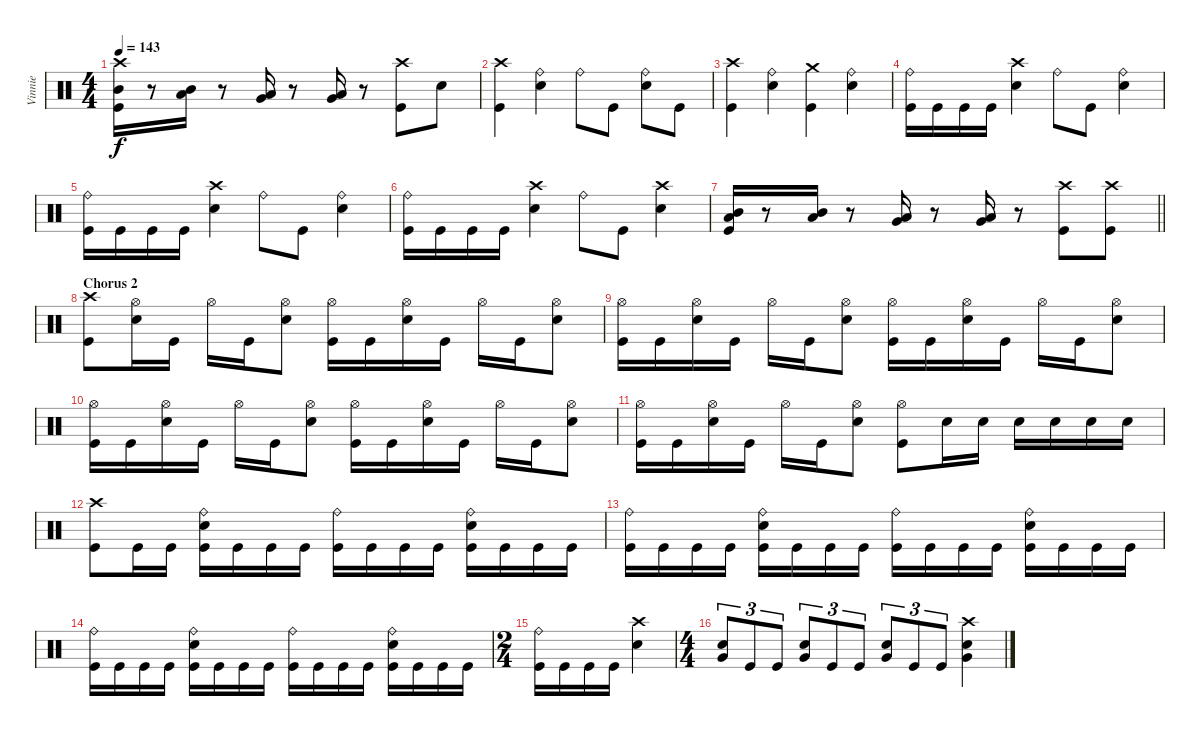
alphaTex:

\track ("Vinnie" "Vinnie") {instrument percussion}
\staff {score}
\articulation defaults
\ts (4 4)
\tempo 143
\clef neutral
\ks c
("Crash high (hit)" "Mid Tom (hit)" "Kick (hit)").16{dy f} r.8 ("Mid Tom (hit)" "Low Tom (hit)").16 r.8 ("Low Tom (hit)" "Very Low Tom (hit)").16 r.8 ("Low Tom (hit)" "Very Low Tom (hit)").16 r.8 ("Crash high (hit)" "Kick (hit)").8 "Electric Snare (hit)".8 |
("Crash high (hit)" "Kick (hit)").4 ("Ride (bell)" "Electric Snare (hit)").4 "Ride (bell)".8 "Kick (hit)".8 ("Ride (bell)" "Electric Snare (hit)").8 "Kick (hit)".8 |
("Crash high (hit)" "Kick (hit)").4 ("Ride (bell)" "Electric Snare (hit)").4 ("Crash medium (hit)" "Kick (hit)").4 ("Ride (bell)" "Electric Snare (hit)").4 |
("Ride (bell)" "Kick (hit)").16 "Kick (hit)".16 "Kick (hit)".16 "Kick (hit)".16 ("Crash high (hit)" "Electric Snare (hit)").4 "Ride (bell)".8 "Kick (hit)".8 ("Ride (bell)" "Electric Snare (hit)").4 |
("Ride (bell)" "Kick (hit)").16 "Kick (hit)".16 "Kick (hit)".16 "Kick (hit)".16 ("Crash high (hit)" "Electric Snare (hit)").4 "Ride (bell)".8 "Kick (hit)".8 ("Ride (bell)" "Electric Snare (hit)").4 |
("Ride (bell)" "Kick (hit)").16 "Kick (hit)".16 "Kick (hit)".16 "Kick (hit)".16 ("Crash high (hit)" "Electric Snare (hit)").4 "Ride (bell)".8 "Kick (hit)".8 ("Crash high (hit)" "Electric Snare (hit)").4 |
\barLineRight lightlight
("Mid Tom (hit)" "Low Tom (hit)" "Kick (hit)").16 r.8 ("Mid Tom (hit)" "Low Tom (hit)").16 r.8 ("Low Tom (hit)" "Very Low Tom (hit)").16 r.8 ("Low Tom (hit)" "Very Low Tom (hit)").16 r.8 ("Crash high (hit)" "Kick (hit)").8 ("Crash high (hit)" "Kick (hit)").8 |
\section ("" "Chorus 2")
("Crash high (hit)" "Kick (hit)").8 ("Hi-Hat (open)" "Electric Snare (hit)").16 "Kick (hit)".16 "Hi-Hat (open)".16 "Kick (hit)".16 ("Hi-Hat (open)" "Electric Snare (hit)").8 ("Hi-Hat (open)" "Kick (hit)").16 "Kick (hit)".16 ("Hi-Hat (open)" "Electric Snare (hit)").16 "Kick (hit)".16 "Hi-Hat (open)".16 "Kick (hit)".16 ("Hi-Hat (open)" "Electric Snare (hit)").8 |
("Hi-Hat (open)" "Kick (hit)").16 "Kick (hit)".16 ("Hi-Hat (open)" "Electric Snare (hit)").16 "Kick (hit)".16 "Hi-Hat (open)".16 "Kick (hit)".16 ("Hi-Hat (open)" "Electric Snare (hit)").8 ("Hi-Hat (open)" "Kick (hit)").16 "Kick (hit)".16 ("Hi-Hat (open)" "Electric Snare (hit)").16 "Kick (hit)".16 "Hi-Hat (open)".16 "Kick (hit)".16 ("Hi-Hat (open)" "Electric Snare (hit)").8 |
("Hi-Hat (open)" "Kick (hit)").16 "Kick (hit)".16 ("Hi-Hat (open)" "Electric Snare (hit)").16 "Kick (hit)".16 "Hi-Hat (open)".16 "Kick (hit)".16 ("Hi-Hat (open)" "Electric Snare (hit)").8 ("Hi-Hat (open)" "Kick (hit)").16 "Kick (hit)".16 ("Hi-Hat (open)" "Electric Snare (hit)").16 "Kick (hit)".16 "Hi-Hat (open)".16 "Kick (hit)".16 ("Hi-Hat (open)" "Electric Snare (hit)").8 |
("Hi-Hat (open)" "Kick (hit)").16 "Kick (hit)".16 ("Hi-Hat (open)" "Electric Snare (hit)").16 "Kick (hit)".16 "Hi-Hat (open)".16 "Kick (hit)".16 ("Hi-Hat (open)" "Electric Snare (hit)").8 ("Hi-Hat (open)" "Kick (hit)").8 "Electric Snare (hit)".16 "Electric Snare (hit)".16 "Electric Snare (hit)".16 "Electric Snare (hit)".16 "Electric Snare (hit)".16 "Electric Snare (hit)".16 |
("Crash high (hit)" "Kick (hit)").8 "Kick (hit)".16 "Kick (hit)".16 ("Ride (bell)" "Electric Snare (hit)" "Kick (hit)").16 "Kick (hit)".16 "Kick (hit)".16 "Kick (hit)".16 ("Ride (bell)" "Kick (hit)").16 "Kick (hit)".16 "Kick (hit)".16 "Kick (hit)".16 ("Ride (bell)" "Electric Snare (hit)" "Kick (hit)").16 "Kick (hit)".16 "Kick (hit)".16 "Kick (hit)".16 |
("Ride (bell)" "Kick (hit)").16 "Kick (hit)".16 "Kick (hit)".16 "Kick (hit)".16 ("Ride (bell)" "Electric Snare (hit)" "Kick (hit)").16 "Kick (hit)".16 "Kick (hit)".16 "Kick (hit)".16 ("Ride (bell)" "Kick (hit)").16 "Kick (hit)".16 "Kick (hit)".16 "Kick (hit)".16 ("Ride (bell)" "Electric Snare (hit)" "Kick (hit)").16 "Kick (hit)".16 "Kick (hit)".16 "Kick (hit)".16 |
("Ride (bell)" "Kick (hit)").16 "Kick (hit)".16 "Kick (hit)".16 "Kick (hit)".16 ("Ride (bell)" "Electric Snare (hit)" "Kick (hit)").16 "Kick (hit)".16 "Kick (hit)".16 "Kick (hit)".16 ("Ride (bell)" "Kick (hit)").16 "Kick (hit)".16 "Kick (hit)".16 "Kick (hit)".16 ("Ride (bell)" "Electric Snare (hit)" "Kick (hit)").16 "Kick (hit)".16 "Kick (hit)".16 "Kick (hit)".16 |
\ts (2 4)
("Ride (bell)" "Kick (hit)").16 "Kick (hit)".16 "Kick (hit)".16 "Kick (hit)".16 ("Crash high (hit)" "Electric Snare (hit)").4 |
\ts (4 4)
("Electric Snare (hit)" "Very Low Tom (hit)").8{tu (3 2)} "Kick (hit)".8{tu (3 2)} "Kick (hit)".8{tu (3 2)} ("Electric Snare (hit)" "Very Low Tom (hit)").8{tu (3 2)} "Kick (hit)".8{tu (3 2)} "Kick (hit)".8{tu (3 2)} ("Electric Snare (hit)" "Very Low Tom (hit)").8{tu (3 2)} "Kick (hit)".8{tu (3 2)} "Kick (hit)".8{tu (3 2)} ("Crash high (hit)" "Electric Snare (hit)" "Very Low Tom (hit)").4
